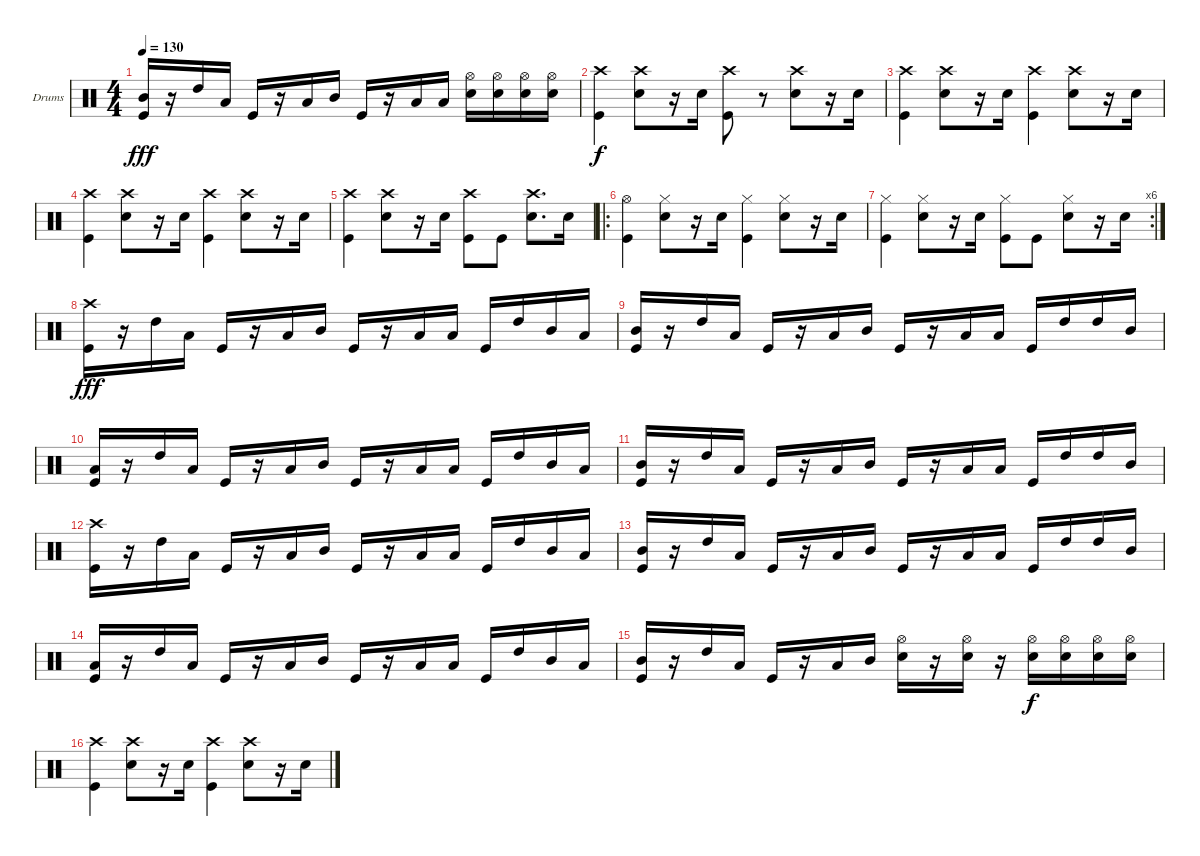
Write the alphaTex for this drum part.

\bracketExtendMode groupsimilarinstruments
\firstSystemTrackNameOrientation horizontal
\otherSystemsTrackNameOrientation horizontal
\track ("Drumkit" "Drums") {instrument percussion}
\staff {score}
\articulation defaults
\ts (4 4)
\tempo 130
\clef neutral
\ks c
("Mid Tom (hit)" "Kick (hit)").16{dy fff} r.16 "High Tom (hit)".16 "Low Tom (hit)".16 "Kick (hit)".16 r.16 "Low Tom (hit)".16 "Mid Tom (hit)".16 "Kick (hit)".16 r.16 "Low Tom (hit)".16 "Low Tom (hit)".16 ("Snare (hit) 2" "Hi-Hat (open)").16 ("Snare (hit) 2" "Hi-Hat (open)").16 ("Snare (hit) 2" "Hi-Hat (open)").16 ("Snare (hit) 2" "Hi-Hat (open)").16 |
("Kick (hit)" "Crash high (hit)").4{dy f} ("Snare (hit) 2" "Crash high (hit)").8 r.16 "Snare (hit) 2".16 ("Kick (hit)" "Crash high (hit)").8 r.8 ("Snare (hit) 2" "Crash high (hit)").8 r.16 "Snare (hit) 2".16 |
("Kick (hit)" "Crash high (hit)").4 ("Snare (hit) 2" "Crash high (hit)").8 r.16 "Snare (hit) 2".16 ("Kick (hit)" "Crash high (hit)").4 ("Snare (hit) 2" "Crash high (hit)").8 r.16 "Snare (hit) 2".16 |
("Kick (hit)" "Crash high (hit)").4 ("Snare (hit) 2" "Crash high (hit)").8 r.16 "Snare (hit) 2".16 ("Kick (hit)" "Crash high (hit)").4 ("Snare (hit) 2" "Crash high (hit)").8 r.16 "Snare (hit) 2".16 |
("Kick (hit)" "Crash high (hit)").4 ("Snare (hit) 2" "Crash high (hit)").8 r.16 "Snare (hit) 2".16 ("Kick (hit)" "Crash high (hit)").8 "Kick (hit)".8 ("Snare (hit) 2" "Crash high (hit)").8{d} "Snare (hit) 2".16 |
\ro
("Kick (hit)" "Hi-Hat (open)").4 ("Snare (hit) 2" "Hi-Hat (closed)").8 r.16 "Snare (hit) 2".16 ("Kick (hit)" "Hi-Hat (closed)").4 ("Snare (hit) 2" "Hi-Hat (closed)").8 r.16 "Snare (hit) 2".16 |
\rc 6
("Kick (hit)" "Hi-Hat (closed)").4 ("Snare (hit) 2" "Hi-Hat (closed)").8 r.16 "Snare (hit) 2".16 ("Kick (hit)" "Hi-Hat (closed)").8 "Kick (hit)".8 ("Snare (hit) 2" "Hi-Hat (closed)").8 r.16 "Snare (hit) 2".16 |
("Crash high (hit)" "Kick (hit)").16{dy fff} r.16 "High Tom (hit)".16 "Low Tom (hit)".16 "Kick (hit)".16 r.16 "Low Tom (hit)".16 "Mid Tom (hit)".16 "Kick (hit)".16 r.16 "Low Tom (hit)".16 "Low Tom (hit)".16 "Kick (hit)".16 "High Tom (hit)".16 "Mid Tom (hit)".16 "Low Tom (hit)".16 |
("Mid Tom (hit)" "Kick (hit)").16 r.16 "High Tom (hit)".16 "Low Tom (hit)".16 "Kick (hit)".16 r.16 "Low Tom (hit)".16 "Mid Tom (hit)".16 "Kick (hit)".16 r.16 "Low Tom (hit)".16 "Low Tom (hit)".16 "Kick (hit)".16 "High Tom (hit)".16 "High Tom (hit)".16 "Mid Tom (hit)".16 |
("Low Tom (hit)" "Kick (hit)").16 r.16 "High Tom (hit)".16 "Low Tom (hit)".16 "Kick (hit)".16 r.16 "Low Tom (hit)".16 "Mid Tom (hit)".16 "Kick (hit)".16 r.16 "Low Tom (hit)".16 "Low Tom (hit)".16 "Kick (hit)".16 "High Tom (hit)".16 "Mid Tom (hit)".16 "Low Tom (hit)".16 |
("Mid Tom (hit)" "Kick (hit)").16 r.16 "High Tom (hit)".16 "Low Tom (hit)".16 "Kick (hit)".16 r.16 "Low Tom (hit)".16 "Mid Tom (hit)".16 "Kick (hit)".16 r.16 "Low Tom (hit)".16 "Low Tom (hit)".16 "Kick (hit)".16 "High Tom (hit)".16 "High Tom (hit)".16 "Mid Tom (hit)".16 |
("Crash high (hit)" "Kick (hit)").16 r.16 "High Tom (hit)".16 "Low Tom (hit)".16 "Kick (hit)".16 r.16 "Low Tom (hit)".16 "Mid Tom (hit)".16 "Kick (hit)".16 r.16 "Low Tom (hit)".16 "Low Tom (hit)".16 "Kick (hit)".16 "High Tom (hit)".16 "Mid Tom (hit)".16 "Low Tom (hit)".16 |
("Mid Tom (hit)" "Kick (hit)").16 r.16 "High Tom (hit)".16 "Low Tom (hit)".16 "Kick (hit)".16 r.16 "Low Tom (hit)".16 "Mid Tom (hit)".16 "Kick (hit)".16 r.16 "Low Tom (hit)".16 "Low Tom (hit)".16 "Kick (hit)".16 "High Tom (hit)".16 "High Tom (hit)".16 "Mid Tom (hit)".16 |
("Low Tom (hit)" "Kick (hit)").16 r.16 "High Tom (hit)".16 "Low Tom (hit)".16 "Kick (hit)".16 r.16 "Low Tom (hit)".16 "Mid Tom (hit)".16 "Kick (hit)".16 r.16 "Low Tom (hit)".16 "Low Tom (hit)".16 "Kick (hit)".16 "High Tom (hit)".16 "Mid Tom (hit)".16 "Low Tom (hit)".16 |
("Mid Tom (hit)" "Kick (hit)").16 r.16 "High Tom (hit)".16 "Low Tom (hit)".16 "Kick (hit)".16 r.16 "Low Tom (hit)".16 "Mid Tom (hit)".16 ("Snare (hit) 2" "Hi-Hat (open)").16 r.16 ("Snare (hit) 2" "Hi-Hat (open)").16 r.16 ("Snare (hit) 2" "Hi-Hat (open)").16{dy f} ("Snare (hit) 2" "Hi-Hat (open)").16 ("Snare (hit) 2" "Hi-Hat (open)").16 ("Snare (hit) 2" "Hi-Hat (open)").16 |
("Kick (hit)" "Crash high (hit)").4 ("Snare (hit) 2" "Crash high (hit)").8 r.16 "Snare (hit) 2".16 ("Kick (hit)" "Crash high (hit)").4 ("Snare (hit) 2" "Crash high (hit)").8 r.16 "Snare (hit) 2".16
